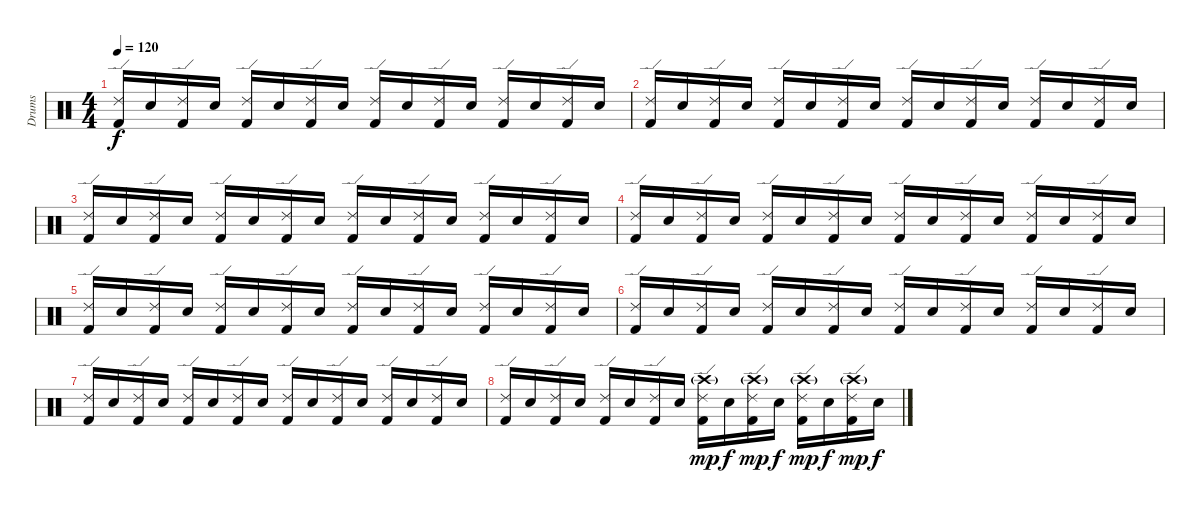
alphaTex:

\track ("Drums" "Drums") {instrument percussion}
\staff {score}
\articulation defaults
\ts (4 4)
\tempo 120
\clef neutral
\ks c
("Ride (edge) 2" "Kick (hit) 2").16{dy f} "Electric Snare (hit)".16 ("Ride (edge) 2" "Kick (hit) 2").16 "Electric Snare (hit)".16 ("Ride (edge) 2" "Kick (hit) 2").16 "Electric Snare (hit)".16 ("Ride (edge) 2" "Kick (hit) 2").16 "Electric Snare (hit)".16 ("Ride (edge) 2" "Kick (hit) 2").16 "Electric Snare (hit)".16 ("Ride (edge) 2" "Kick (hit) 2").16 "Electric Snare (hit)".16 ("Ride (edge) 2" "Kick (hit) 2").16 "Electric Snare (hit)".16 ("Ride (edge) 2" "Kick (hit) 2").16 "Electric Snare (hit)".16 |
("Ride (edge) 2" "Kick (hit) 2").16 "Electric Snare (hit)".16 ("Ride (edge) 2" "Kick (hit) 2").16 "Electric Snare (hit)".16 ("Ride (edge) 2" "Kick (hit) 2").16 "Electric Snare (hit)".16 ("Ride (edge) 2" "Kick (hit) 2").16 "Electric Snare (hit)".16 ("Ride (edge) 2" "Kick (hit) 2").16 "Electric Snare (hit)".16 ("Ride (edge) 2" "Kick (hit) 2").16 "Electric Snare (hit)".16 ("Ride (edge) 2" "Kick (hit) 2").16 "Electric Snare (hit)".16 ("Ride (edge) 2" "Kick (hit) 2").16 "Electric Snare (hit)".16 |
("Ride (edge) 2" "Kick (hit) 2").16 "Electric Snare (hit)".16 ("Ride (edge) 2" "Kick (hit) 2").16 "Electric Snare (hit)".16 ("Ride (edge) 2" "Kick (hit) 2").16 "Electric Snare (hit)".16 ("Ride (edge) 2" "Kick (hit) 2").16 "Electric Snare (hit)".16 ("Ride (edge) 2" "Kick (hit) 2").16 "Electric Snare (hit)".16 ("Ride (edge) 2" "Kick (hit) 2").16 "Electric Snare (hit)".16 ("Ride (edge) 2" "Kick (hit) 2").16 "Electric Snare (hit)".16 ("Ride (edge) 2" "Kick (hit) 2").16 "Electric Snare (hit)".16 |
("Ride (edge) 2" "Kick (hit) 2").16 "Electric Snare (hit)".16 ("Ride (edge) 2" "Kick (hit) 2").16 "Electric Snare (hit)".16 ("Ride (edge) 2" "Kick (hit) 2").16 "Electric Snare (hit)".16 ("Ride (edge) 2" "Kick (hit) 2").16 "Electric Snare (hit)".16 ("Ride (edge) 2" "Kick (hit) 2").16 "Electric Snare (hit)".16 ("Ride (edge) 2" "Kick (hit) 2").16 "Electric Snare (hit)".16 ("Ride (edge) 2" "Kick (hit) 2").16 "Electric Snare (hit)".16 ("Ride (edge) 2" "Kick (hit) 2").16 "Electric Snare (hit)".16 |
("Ride (edge) 2" "Kick (hit) 2").16 "Electric Snare (hit)".16 ("Ride (edge) 2" "Kick (hit) 2").16 "Electric Snare (hit)".16 ("Ride (edge) 2" "Kick (hit) 2").16 "Electric Snare (hit)".16 ("Ride (edge) 2" "Kick (hit) 2").16 "Electric Snare (hit)".16 ("Ride (edge) 2" "Kick (hit) 2").16 "Electric Snare (hit)".16 ("Ride (edge) 2" "Kick (hit) 2").16 "Electric Snare (hit)".16 ("Ride (edge) 2" "Kick (hit) 2").16 "Electric Snare (hit)".16 ("Ride (edge) 2" "Kick (hit) 2").16 "Electric Snare (hit)".16 |
("Ride (edge) 2" "Kick (hit) 2").16 "Electric Snare (hit)".16 ("Ride (edge) 2" "Kick (hit) 2").16 "Electric Snare (hit)".16 ("Ride (edge) 2" "Kick (hit) 2").16 "Electric Snare (hit)".16 ("Ride (edge) 2" "Kick (hit) 2").16 "Electric Snare (hit)".16 ("Ride (edge) 2" "Kick (hit) 2").16 "Electric Snare (hit)".16 ("Ride (edge) 2" "Kick (hit) 2").16 "Electric Snare (hit)".16 ("Ride (edge) 2" "Kick (hit) 2").16 "Electric Snare (hit)".16 ("Ride (edge) 2" "Kick (hit) 2").16 "Electric Snare (hit)".16 |
("Ride (edge) 2" "Kick (hit) 2").16 "Electric Snare (hit)".16 ("Ride (edge) 2" "Kick (hit) 2").16 "Electric Snare (hit)".16 ("Ride (edge) 2" "Kick (hit) 2").16 "Electric Snare (hit)".16 ("Ride (edge) 2" "Kick (hit) 2").16 "Electric Snare (hit)".16 ("Ride (edge) 2" "Kick (hit) 2").16 "Electric Snare (hit)".16 ("Ride (edge) 2" "Kick (hit) 2").16 "Electric Snare (hit)".16 ("Ride (edge) 2" "Kick (hit) 2").16 "Electric Snare (hit)".16 ("Ride (edge) 2" "Kick (hit) 2").16 "Electric Snare (hit)".16 |
("Ride (edge) 2" "Kick (hit) 2").16 "Electric Snare (hit)".16 ("Ride (edge) 2" "Kick (hit) 2").16 "Electric Snare (hit)".16 ("Ride (edge) 2" "Kick (hit) 2").16 "Electric Snare (hit)".16 ("Ride (edge) 2" "Kick (hit) 2").16 "Electric Snare (hit)".16 ("Ride (edge) 2" "Kick (hit) 2" "Crash high (hit)"{g}).16{dy mp} "Electric Snare (hit)".16{dy f} ("Ride (edge) 2" "Kick (hit) 2" "Crash high (hit)"{g}).16{dy mp} "Electric Snare (hit)".16{dy f} ("Ride (edge) 2" "Kick (hit) 2" "Crash high (hit)"{g}).16{dy mp} "Electric Snare (hit)".16{dy f} ("Ride (edge) 2" "Kick (hit) 2" "Crash high (hit)"{g}).16{dy mp} "Electric Snare (hit)".16{dy f}
